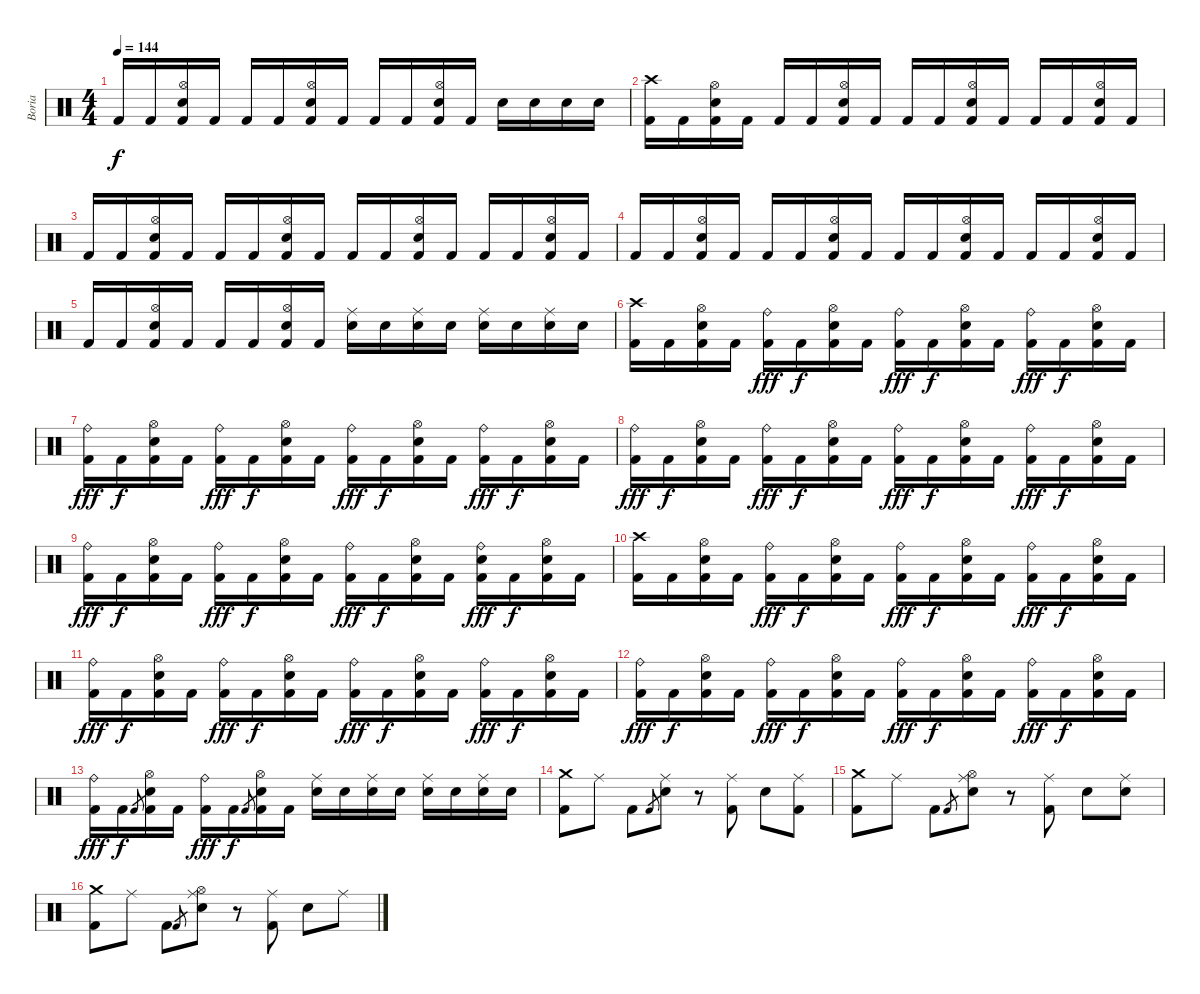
\track ("Boria" "Boria") {instrument percussion}
\staff {score}
\articulation defaults
\ts (4 4)
\tempo 144
\clef neutral
\ks c "Kick (hit) 2".16{dy f} "Kick (hit) 2".16
("Hi-Hat (open)" "Electric Snare (hit)" "Kick (hit) 2").16 "Kick (hit) 2".16 "Kick (hit) 2".16 "Kick (hit) 2".16 ("Hi-Hat (open)" "Electric Snare (hit)" "Kick (hit) 2").16 "Kick (hit) 2".16 "Kick (hit) 2".16 "Kick (hit) 2".16 ("Hi-Hat (open)" "Electric Snare (hit)" "Kick (hit) 2").16 "Kick (hit) 2".16 "Electric Snare (hit)".16 "Electric Snare (hit)".16 "Electric Snare (hit)".16 "Electric Snare (hit)".16 |
("Crash high (hit)" "Kick (hit) 2").16 "Kick (hit) 2".16 ("Hi-Hat (open)" "Electric Snare (hit)" "Kick (hit) 2").16 "Kick (hit) 2".16 "Kick (hit) 2".16 "Kick (hit) 2".16 ("Hi-Hat (open)" "Electric Snare (hit)" "Kick (hit) 2").16 "Kick (hit) 2".16 "Kick (hit) 2".16 "Kick (hit) 2".16 ("Hi-Hat (open)" "Electric Snare (hit)" "Kick (hit) 2").16 "Kick (hit) 2".16 "Kick (hit) 2".16 "Kick (hit) 2".16 ("Hi-Hat (open)" "Electric Snare (hit)" "Kick (hit) 2").16 "Kick (hit) 2".16 |
"Kick (hit) 2".16 "Kick (hit) 2".16 ("Hi-Hat (open)" "Electric Snare (hit)" "Kick (hit) 2").16 "Kick (hit) 2".16 "Kick (hit) 2".16 "Kick (hit) 2".16 ("Hi-Hat (open)" "Electric Snare (hit)" "Kick (hit) 2").16 "Kick (hit) 2".16 "Kick (hit) 2".16 "Kick (hit) 2".16 ("Hi-Hat (open)" "Electric Snare (hit)" "Kick (hit) 2").16 "Kick (hit) 2".16 "Kick (hit) 2".16 "Kick (hit) 2".16 ("Hi-Hat (open)" "Electric Snare (hit)" "Kick (hit) 2").16 "Kick (hit) 2".16 |
"Kick (hit) 2".16 "Kick (hit) 2".16 ("Hi-Hat (open)" "Electric Snare (hit)" "Kick (hit) 2").16 "Kick (hit) 2".16 "Kick (hit) 2".16 "Kick (hit) 2".16 ("Hi-Hat (open)" "Electric Snare (hit)" "Kick (hit) 2").16 "Kick (hit) 2".16 "Kick (hit) 2".16 "Kick (hit) 2".16 ("Hi-Hat (open)" "Electric Snare (hit)" "Kick (hit) 2").16 "Kick (hit) 2".16 "Kick (hit) 2".16 "Kick (hit) 2".16 ("Hi-Hat (open)" "Electric Snare (hit)" "Kick (hit) 2").16 "Kick (hit) 2".16 |
"Kick (hit) 2".16 "Kick (hit) 2".16 ("Hi-Hat (open)" "Electric Snare (hit)" "Kick (hit) 2").16 "Kick (hit) 2".16 "Kick (hit) 2".16 "Kick (hit) 2".16 ("Hi-Hat (open)" "Electric Snare (hit)" "Kick (hit) 2").16 "Kick (hit) 2".16 ("Ride (middle)" "Electric Snare (hit)").16 "Electric Snare (hit)".16 ("Ride (middle)" "Electric Snare (hit)").16 "Electric Snare (hit)".16 ("Ride (middle)" "Electric Snare (hit)").16 "Electric Snare (hit)".16 ("Ride (middle)" "Electric Snare (hit)").16 "Electric Snare (hit)".16 |
("Crash high (hit)" "Kick (hit) 2").16 "Kick (hit) 2".16 ("Hi-Hat (open)" "Electric Snare (hit)" "Kick (hit) 2").16 "Kick (hit) 2".16 ("Ride (bell)" "Kick (hit) 2").16{dy fff} "Kick (hit) 2".16{dy f} ("Hi-Hat (open)" "Electric Snare (hit)" "Kick (hit) 2").16 "Kick (hit) 2".16 ("Ride (bell)" "Kick (hit) 2").16{dy fff} "Kick (hit) 2".16{dy f} ("Hi-Hat (open)" "Electric Snare (hit)" "Kick (hit) 2").16 "Kick (hit) 2".16 ("Ride (bell)" "Kick (hit) 2").16{dy fff} "Kick (hit) 2".16{dy f} ("Hi-Hat (open)" "Electric Snare (hit)" "Kick (hit) 2").16 "Kick (hit) 2".16 |
("Ride (bell)" "Kick (hit) 2").16{dy fff} "Kick (hit) 2".16{dy f} ("Hi-Hat (open)" "Electric Snare (hit)" "Kick (hit) 2").16 "Kick (hit) 2".16 ("Ride (bell)" "Kick (hit) 2").16{dy fff} "Kick (hit) 2".16{dy f} ("Hi-Hat (open)" "Electric Snare (hit)" "Kick (hit) 2").16 "Kick (hit) 2".16 ("Ride (bell)" "Kick (hit) 2").16{dy fff} "Kick (hit) 2".16{dy f} ("Hi-Hat (open)" "Electric Snare (hit)" "Kick (hit) 2").16 "Kick (hit) 2".16 ("Ride (bell)" "Kick (hit) 2").16{dy fff} "Kick (hit) 2".16{dy f} ("Hi-Hat (open)" "Electric Snare (hit)" "Kick (hit) 2").16 "Kick (hit) 2".16 |
("Ride (bell)" "Kick (hit) 2").16{dy fff} "Kick (hit) 2".16{dy f} ("Hi-Hat (open)" "Electric Snare (hit)" "Kick (hit) 2").16 "Kick (hit) 2".16 ("Ride (bell)" "Kick (hit) 2").16{dy fff} "Kick (hit) 2".16{dy f} ("Hi-Hat (open)" "Electric Snare (hit)" "Kick (hit) 2").16 "Kick (hit) 2".16 ("Ride (bell)" "Kick (hit) 2").16{dy fff} "Kick (hit) 2".16{dy f} ("Hi-Hat (open)" "Electric Snare (hit)" "Kick (hit) 2").16 "Kick (hit) 2".16 ("Ride (bell)" "Kick (hit) 2").16{dy fff} "Kick (hit) 2".16{dy f} ("Hi-Hat (open)" "Electric Snare (hit)" "Kick (hit) 2").16 "Kick (hit) 2".16 |
("Ride (bell)" "Kick (hit) 2").16{dy fff} "Kick (hit) 2".16{dy f} ("Hi-Hat (open)" "Electric Snare (hit)" "Kick (hit) 2").16 "Kick (hit) 2".16 ("Ride (bell)" "Kick (hit) 2").16{dy fff} "Kick (hit) 2".16{dy f} ("Hi-Hat (open)" "Electric Snare (hit)" "Kick (hit) 2").16 "Kick (hit) 2".16 ("Ride (bell)" "Kick (hit) 2").16{dy fff} "Kick (hit) 2".16{dy f} ("Hi-Hat (open)" "Electric Snare (hit)" "Kick (hit) 2").16 "Kick (hit) 2".16 ("Ride (bell)" "Electric Snare (hit)" "Kick (hit) 2").16{dy fff} "Kick (hit) 2".16{dy f} ("Hi-Hat (open)" "Electric Snare (hit)" "Kick (hit) 2").16 "Kick (hit) 2".16 |
("Crash high (hit)" "Kick (hit) 2").16 "Kick (hit) 2".16 ("Hi-Hat (open)" "Electric Snare (hit)" "Kick (hit) 2").16 "Kick (hit) 2".16 ("Ride (bell)" "Kick (hit) 2").16{dy fff} "Kick (hit) 2".16{dy f} ("Hi-Hat (open)" "Electric Snare (hit)" "Kick (hit) 2").16 "Kick (hit) 2".16 ("Ride (bell)" "Kick (hit) 2").16{dy fff} "Kick (hit) 2".16{dy f} ("Hi-Hat (open)" "Electric Snare (hit)" "Kick (hit) 2").16 "Kick (hit) 2".16 ("Ride (bell)" "Kick (hit) 2").16{dy fff} "Kick (hit) 2".16{dy f} ("Hi-Hat (open)" "Electric Snare (hit)" "Kick (hit) 2").16 "Kick (hit) 2".16 |
("Ride (bell)" "Kick (hit) 2").16{dy fff} "Kick (hit) 2".16{dy f} ("Hi-Hat (open)" "Electric Snare (hit)" "Kick (hit) 2").16 "Kick (hit) 2".16 ("Ride (bell)" "Kick (hit) 2").16{dy fff} "Kick (hit) 2".16{dy f} ("Hi-Hat (open)" "Electric Snare (hit)" "Kick (hit) 2").16 "Kick (hit) 2".16 ("Ride (bell)" "Kick (hit) 2").16{dy fff} "Kick (hit) 2".16{dy f} ("Hi-Hat (open)" "Electric Snare (hit)" "Kick (hit) 2").16 "Kick (hit) 2".16 ("Ride (bell)" "Kick (hit) 2").16{dy fff} "Kick (hit) 2".16{dy f} ("Hi-Hat (open)" "Electric Snare (hit)" "Kick (hit) 2").16 "Kick (hit) 2".16 |
("Ride (bell)" "Kick (hit) 2").16{dy fff} "Kick (hit) 2".16{dy f} ("Hi-Hat (open)" "Electric Snare (hit)" "Kick (hit) 2").16 "Kick (hit) 2".16 ("Ride (bell)" "Kick (hit) 2").16{dy fff} "Kick (hit) 2".16{dy f} ("Hi-Hat (open)" "Electric Snare (hit)" "Kick (hit) 2").16 "Kick (hit) 2".16 ("Ride (bell)" "Kick (hit) 2").16{dy fff} "Kick (hit) 2".16{dy f} ("Hi-Hat (open)" "Electric Snare (hit)" "Kick (hit) 2").16 "Kick (hit) 2".16 ("Ride (bell)" "Kick (hit) 2").16{dy fff} "Kick (hit) 2".16{dy f} ("Hi-Hat (open)" "Electric Snare (hit)" "Kick (hit) 2").16 "Kick (hit) 2".16 |
("Ride (bell)" "Kick (hit) 2").16{dy fff} "Kick (hit) 2".16{dy f} "Kick (hit) 2".8{gr} ("Hi-Hat (open)" "Electric Snare (hit)" "Kick (hit) 2").16 "Kick (hit) 2".16 ("Ride (bell)" "Kick (hit) 2").16{dy fff} "Kick (hit) 2".16{dy f} "Kick (hit) 2".8{gr} ("Hi-Hat (open)" "Electric Snare (hit)" "Kick (hit) 2").16 "Kick (hit) 2".16 ("Ride (middle)" "Electric Snare (hit)").16 "Electric Snare (hit)".16 ("Ride (middle)" "Electric Snare (hit)").16 "Electric Snare (hit)".16 ("Ride (middle)" "Electric Snare (hit)").16 "Electric Snare (hit)".16 ("Ride (middle)" "Electric Snare (hit)").16 "Electric Snare (hit)".16 |
("Crash medium (hit)" "Kick (hit) 2").8 "Ride (middle)".8 "Kick (hit) 2".8 "Kick (hit) 2".8{gr} ("Ride (middle)" "Snare (hit) 2").8 r.8 ("Ride (middle)" "Kick (hit) 2").8 "Snare (hit) 2".8 ("Ride (middle)" "Kick (hit) 2").8 |
("Kick (hit) 2" "Crash medium (hit)").8 "Ride (middle)".8 "Kick (hit) 2".8 "Kick (hit) 2".8{gr} ("Ride (middle)" "Snare (hit) 2" "Hi-Hat (open)").8 r.8 ("Ride (middle)" "Kick (hit) 2").8 "Snare (hit) 2".8 ("Ride (middle)" "Electric Snare (hit)").8 |
("Kick (hit) 2" "Crash medium (hit)").8 "Ride (middle)".8 "Kick (hit) 2".8 "Kick (hit) 2".8{gr} ("Ride (middle)" "Snare (hit) 2" "Hi-Hat (open)").8 r.8 ("Ride (middle)" "Kick (hit) 2").8 "Snare (hit) 2".8 "Ride (middle)".8
